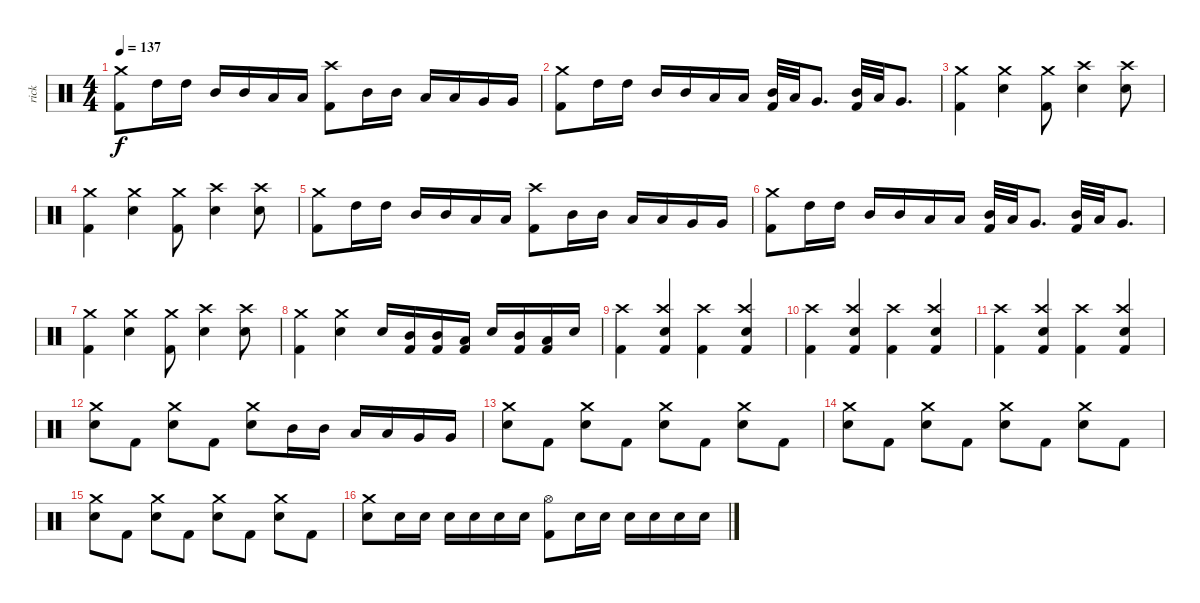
\track ("rick" "rick") {instrument percussion}
\staff {score}
\articulation defaults
\ts (4 4)
\tempo 137
\clef neutral
\ks c
("Crash medium (hit)" "Kick (hit) 2").8{dy f} "High Tom (hit)".16 "High Tom (hit)".16 "Mid Tom (hit)".16 "Mid Tom (hit)".16 "Low Tom (hit)".16 "Low Tom (hit)".16 ("Crash high (hit)" "Kick (hit) 2").8 "Mid Tom (hit)".16 "Mid Tom (hit)".16 "Low Tom (hit)".16 "Low Tom (hit)".16 "Very Low Tom (hit)".16 "Very Low Tom (hit)".16 |
("Crash medium (hit)" "Kick (hit) 2").8 "High Tom (hit)".16 "High Tom (hit)".16 "Mid Tom (hit)".16 "Mid Tom (hit)".16 "Low Tom (hit)".16 "Low Tom (hit)".16 ("Mid Tom (hit)" "Kick (hit) 2").32 "Low Tom (hit)".32 "Very Low Tom (hit)".8{d} ("Mid Tom (hit)" "Kick (hit) 2").32 "Low Tom (hit)".32 "Very Low Tom (hit)".8{d} |
("Crash medium (hit)" "Kick (hit) 2").4 ("Crash medium (hit)" "Electric Snare (hit)").4 ("Crash medium (hit)" "Kick (hit) 2").8 ("Crash high (hit)" "Electric Snare (hit)").4 ("Crash high (hit)" "Electric Snare (hit)").8 |
("Crash medium (hit)" "Kick (hit) 2").4 ("Crash medium (hit)" "Electric Snare (hit)").4 ("Crash medium (hit)" "Kick (hit) 2").8 ("Crash high (hit)" "Electric Snare (hit)").4 ("Crash high (hit)" "Electric Snare (hit)").8 |
("Crash medium (hit)" "Kick (hit) 2").8 "High Tom (hit)".16 "High Tom (hit)".16 "Mid Tom (hit)".16 "Mid Tom (hit)".16 "Low Tom (hit)".16 "Low Tom (hit)".16 ("Crash high (hit)" "Kick (hit) 2").8 "Mid Tom (hit)".16 "Mid Tom (hit)".16 "Low Tom (hit)".16 "Low Tom (hit)".16 "Very Low Tom (hit)".16 "Very Low Tom (hit)".16 |
("Crash medium (hit)" "Kick (hit) 2").8 "High Tom (hit)".16 "High Tom (hit)".16 "Mid Tom (hit)".16 "Mid Tom (hit)".16 "Low Tom (hit)".16 "Low Tom (hit)".16 ("Mid Tom (hit)" "Kick (hit) 2").32 "Low Tom (hit)".32 "Very Low Tom (hit)".8{d} ("Mid Tom (hit)" "Kick (hit) 2").32 "Low Tom (hit)".32 "Very Low Tom (hit)".8{d} |
("Crash medium (hit)" "Kick (hit) 2").4 ("Crash medium (hit)" "Electric Snare (hit)").4 ("Crash medium (hit)" "Kick (hit) 2").8 ("Crash high (hit)" "Electric Snare (hit)").4 ("Crash high (hit)" "Electric Snare (hit)").8 |
("Crash medium (hit)" "Kick (hit) 2").4 ("Crash medium (hit)" "Electric Snare (hit)").4 "Electric Snare (hit)".16 ("Mid Tom (hit)" "Kick (hit) 2").16 ("Mid Tom (hit)" "Kick (hit) 2").16 ("Low Tom (hit)" "Kick (hit) 2").16 "Electric Snare (hit)".16 ("Mid Tom (hit)" "Kick (hit) 2").16 ("Low Tom (hit)" "Kick (hit) 2").16 "Electric Snare (hit)".16 |
("Crash high (hit)" "Kick (hit) 2").4 ("Crash high (hit)" "Electric Snare (hit)" "Kick (hit) 2").4 ("Crash high (hit)" "Kick (hit) 2").4 ("Crash high (hit)" "Electric Snare (hit)" "Kick (hit) 2").4 |
("Crash high (hit)" "Kick (hit) 2").4 ("Crash high (hit)" "Electric Snare (hit)" "Kick (hit) 2").4 ("Crash high (hit)" "Kick (hit) 2").4 ("Crash high (hit)" "Electric Snare (hit)" "Kick (hit) 2").4 |
("Crash high (hit)" "Kick (hit) 2").4 ("Crash high (hit)" "Electric Snare (hit)" "Kick (hit) 2").4 ("Crash high (hit)" "Kick (hit) 2").4 ("Crash high (hit)" "Electric Snare (hit)" "Kick (hit) 2").4 |
("Crash medium (hit)" "Electric Snare (hit)").8 "Kick (hit) 2".8 ("Crash medium (hit)" "Electric Snare (hit)").8 "Kick (hit) 2".8 ("Crash medium (hit)" "Electric Snare (hit)").8 "Mid Tom (hit)".16 "Mid Tom (hit)".16 "Low Tom (hit)".16 "Low Tom (hit)".16 "Very Low Tom (hit)".16 "Very Low Tom (hit)".16 |
("Crash medium (hit)" "Electric Snare (hit)").8 "Kick (hit) 2".8 ("Crash medium (hit)" "Electric Snare (hit)").8 "Kick (hit) 2".8 ("Crash medium (hit)" "Electric Snare (hit)").8 "Kick (hit) 2".8 ("Crash medium (hit)" "Electric Snare (hit)").8 "Kick (hit) 2".8 |
("Crash medium (hit)" "Electric Snare (hit)").8 "Kick (hit) 2".8 ("Crash medium (hit)" "Electric Snare (hit)").8 "Kick (hit) 2".8 ("Crash medium (hit)" "Electric Snare (hit)").8 "Kick (hit) 2".8 ("Crash medium (hit)" "Electric Snare (hit)").8 "Kick (hit) 2".8 |
("Crash medium (hit)" "Electric Snare (hit)").8 "Kick (hit) 2".8 ("Crash medium (hit)" "Electric Snare (hit)").8 "Kick (hit) 2".8 ("Crash medium (hit)" "Electric Snare (hit)").8 "Kick (hit) 2".8 ("Crash medium (hit)" "Electric Snare (hit)").8 "Kick (hit) 2".8 |
("Crash medium (hit)" "Electric Snare (hit)").8 "Electric Snare (hit)".16 "Electric Snare (hit)".16 "Electric Snare (hit)".16 "Electric Snare (hit)".16 "Electric Snare (hit)".16 "Electric Snare (hit)".16 ("Hi-Hat (open)" "Kick (hit) 2").8 "Electric Snare (hit)".16 "Electric Snare (hit)".16 "Electric Snare (hit)".16 "Electric Snare (hit)".16 "Electric Snare (hit)".16 "Electric Snare (hit)".16
